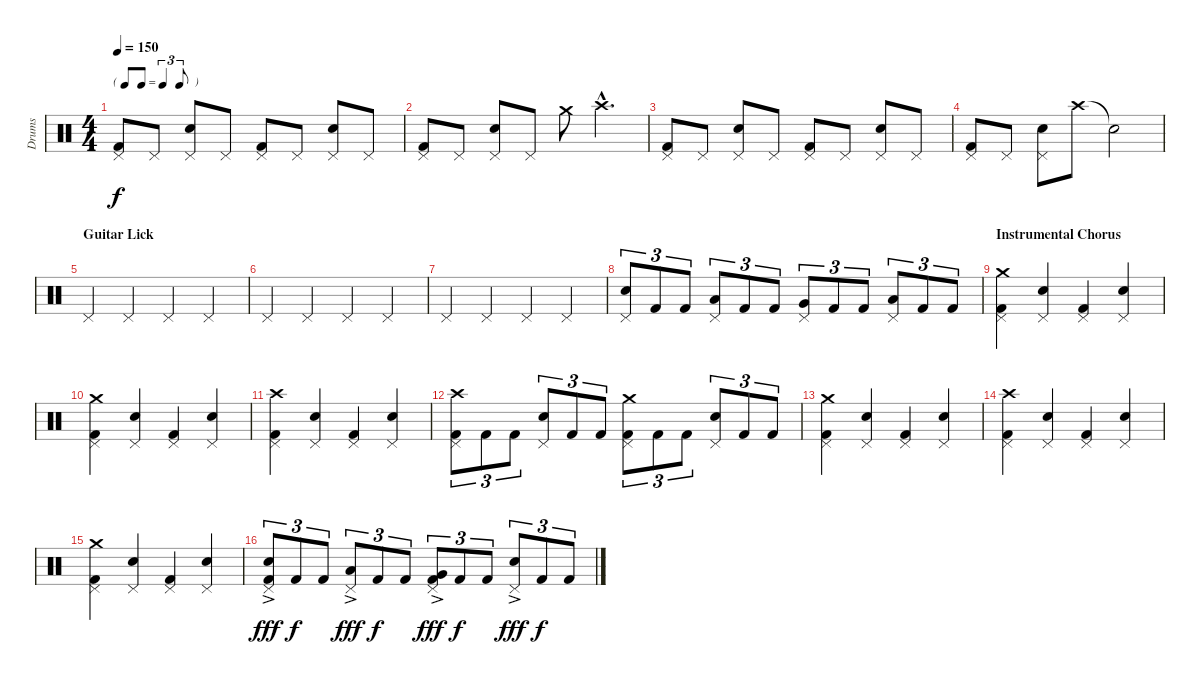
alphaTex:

\track ("Drums" "Drums") {instrument percussion}
\staff {score}
\articulation defaults
\ts (4 4)
\tf triplet8th
\tempo 150
\clef neutral
\ks c
("Pedal Hi-Hat (hit)" "Kick (hit) 2").8{dy f} "Pedal Hi-Hat (hit)".8 ("Pedal Hi-Hat (hit)" "Snare (hit) 2").8 "Pedal Hi-Hat (hit)".8 ("Pedal Hi-Hat (hit)" "Kick (hit) 2").8 "Pedal Hi-Hat (hit)".8 ("Pedal Hi-Hat (hit)" "Snare (hit) 2").8 "Pedal Hi-Hat (hit)".8 |
("Pedal Hi-Hat (hit)" "Kick (hit) 2").8 "Pedal Hi-Hat (hit)".8 ("Pedal Hi-Hat (hit)" "Snare (hit) 2").8 "Pedal Hi-Hat (hit)".8 "Crash medium (hit)".8 "Crash high (hit)"{hac}.4{d} |
("Pedal Hi-Hat (hit)" "Kick (hit) 2").8 "Pedal Hi-Hat (hit)".8 ("Pedal Hi-Hat (hit)" "Snare (hit) 2").8 "Pedal Hi-Hat (hit)".8 ("Pedal Hi-Hat (hit)" "Kick (hit) 2").8 "Pedal Hi-Hat (hit)".8 ("Pedal Hi-Hat (hit)" "Snare (hit) 2").8 "Pedal Hi-Hat (hit)".8 |
("Pedal Hi-Hat (hit)" "Kick (hit) 2").8 "Pedal Hi-Hat (hit)".8 ("Pedal Hi-Hat (hit)" "Snare (hit) 2").8 "Crash high (hit)".8 "Snare (hit)"{t}.2 |
\section ("" "Guitar Lick")
"Pedal Hi-Hat (hit)".4 "Pedal Hi-Hat (hit)".4 "Pedal Hi-Hat (hit)".4 "Pedal Hi-Hat (hit)".4 |
"Pedal Hi-Hat (hit)".4 "Pedal Hi-Hat (hit)".4 "Pedal Hi-Hat (hit)".4 "Pedal Hi-Hat (hit)".4 |
"Pedal Hi-Hat (hit)".4 "Pedal Hi-Hat (hit)".4 "Pedal Hi-Hat (hit)".4 "Pedal Hi-Hat (hit)".4 |
("Pedal Hi-Hat (hit)" "Snare (hit) 2").8{tu (3 2)} "Kick (hit) 2".8{tu (3 2)} "Kick (hit) 2".8{tu (3 2)} ("Pedal Hi-Hat (hit)" "Low Tom (hit)").8{tu (3 2)} "Kick (hit) 2".8{tu (3 2)} "Kick (hit) 2".8{tu (3 2)} ("Pedal Hi-Hat (hit)" "Very Low Tom (hit)").8{tu (3 2)} "Kick (hit) 2".8{tu (3 2)} "Kick (hit) 2".8{tu (3 2)} ("Pedal Hi-Hat (hit)" "Low Floor Tom (hit)").8{tu (3 2)} "Kick (hit) 2".8{tu (3 2)} "Kick (hit) 2".8{tu (3 2)} |
\section ("" "Instrumental Chorus")
("Pedal Hi-Hat (hit)" "Crash medium (hit)" "Kick (hit) 2").4 ("Pedal Hi-Hat (hit)" "Snare (hit) 2").4 ("Pedal Hi-Hat (hit)" "Kick (hit) 2").4 ("Pedal Hi-Hat (hit)" "Snare (hit) 2").4 |
("Pedal Hi-Hat (hit)" "Crash medium (hit)" "Kick (hit) 2").4 ("Pedal Hi-Hat (hit)" "Snare (hit) 2").4 ("Pedal Hi-Hat (hit)" "Kick (hit) 2").4 ("Pedal Hi-Hat (hit)" "Snare (hit) 2").4 |
("Pedal Hi-Hat (hit)" "Crash high (hit)" "Kick (hit) 2").4 ("Pedal Hi-Hat (hit)" "Snare (hit) 2").4 ("Pedal Hi-Hat (hit)" "Kick (hit) 2").4 ("Pedal Hi-Hat (hit)" "Snare (hit) 2").4 |
("Pedal Hi-Hat (hit)" "Crash high (hit)" "Kick (hit) 2").8{tu (3 2)} "Kick (hit) 2".8{tu (3 2)} "Kick (hit) 2".8{tu (3 2)} ("Pedal Hi-Hat (hit)" "Snare (hit) 2").8{tu (3 2)} "Kick (hit) 2".8{tu (3 2)} "Kick (hit) 2".8{tu (3 2)} ("Pedal Hi-Hat (hit)" "Crash medium (hit)" "Kick (hit) 2").8{tu (3 2)} "Kick (hit) 2".8{tu (3 2)} "Kick (hit) 2".8{tu (3 2)} ("Pedal Hi-Hat (hit)" "Snare (hit) 2").8{tu (3 2)} "Kick (hit) 2".8{tu (3 2)} "Kick (hit) 2".8{tu (3 2)} |
("Pedal Hi-Hat (hit)" "Crash medium (hit)" "Kick (hit) 2").4 ("Pedal Hi-Hat (hit)" "Snare (hit) 2").4 ("Pedal Hi-Hat (hit)" "Kick (hit) 2").4 ("Pedal Hi-Hat (hit)" "Snare (hit) 2").4 |
("Pedal Hi-Hat (hit)" "Crash high (hit)" "Kick (hit) 2").4 ("Pedal Hi-Hat (hit)" "Snare (hit) 2").4 ("Pedal Hi-Hat (hit)" "Kick (hit) 2").4 ("Pedal Hi-Hat (hit)" "Snare (hit) 2").4 |
("Pedal Hi-Hat (hit)" "Crash medium (hit)" "Kick (hit) 2").4 ("Pedal Hi-Hat (hit)" "Snare (hit) 2").4 ("Pedal Hi-Hat (hit)" "Kick (hit) 2").4 ("Pedal Hi-Hat (hit)" "Snare (hit) 2").4 |
("Pedal Hi-Hat (hit)" "Snare (hit) 2"{ac} "Kick (hit) 2").8{tu (3 2) dy fff} "Kick (hit) 2".8{tu (3 2) dy f} "Kick (hit) 2".8{tu (3 2)} ("Pedal Hi-Hat (hit)" "Low Floor Tom (hit)"{ac}).8{tu (3 2) dy fff} "Kick (hit) 2".8{tu (3 2) dy f} "Kick (hit) 2".8{tu (3 2)} ("Pedal Hi-Hat (hit)" "Very Low Tom (hit)"{ac} "Kick (hit) 2").8{tu (3 2) dy fff} "Kick (hit) 2".8{tu (3 2) dy f} "Kick (hit) 2".8{tu (3 2)} ("Pedal Hi-Hat (hit)" "Snare (hit) 2"{ac}).8{tu (3 2) dy fff} "Kick (hit) 2".8{tu (3 2) dy f} "Kick (hit) 2".8{tu (3 2)}
